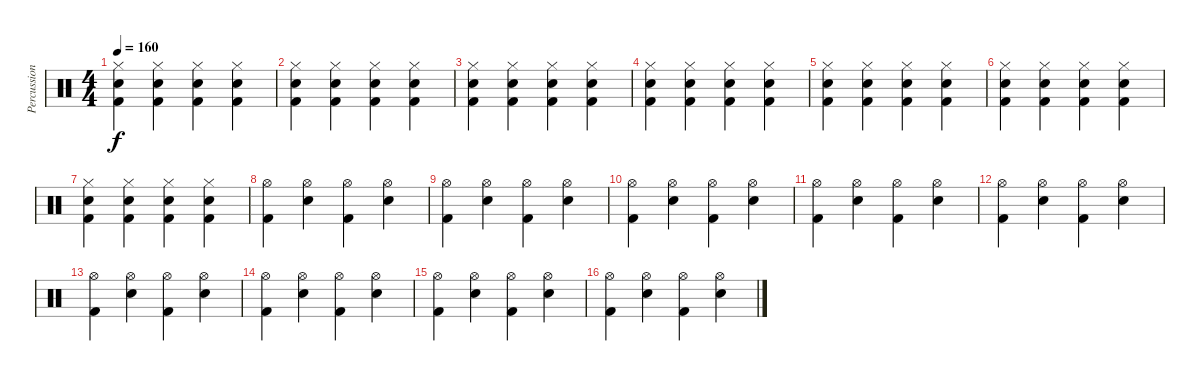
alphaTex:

\track ("Percussion" "Percussion") {instrument percussion}
\staff {score}
\articulation defaults
\ts (4 4)
\tempo 160
\clef neutral
\ks c
("Hi-Hat (closed)" "Snare (hit) 2" "Kick (hit) 2").4{dy f} ("Hi-Hat (closed)" "Snare (hit) 2" "Kick (hit) 2").4 ("Hi-Hat (closed)" "Snare (hit) 2" "Kick (hit) 2").4 ("Hi-Hat (closed)" "Snare (hit) 2" "Kick (hit) 2").4 |
("Hi-Hat (closed)" "Snare (hit) 2" "Kick (hit) 2").4 ("Hi-Hat (closed)" "Snare (hit) 2" "Kick (hit) 2").4 ("Hi-Hat (closed)" "Snare (hit) 2" "Kick (hit) 2").4 ("Hi-Hat (closed)" "Snare (hit) 2" "Kick (hit) 2").4 |
("Hi-Hat (closed)" "Snare (hit) 2" "Kick (hit) 2").4 ("Hi-Hat (closed)" "Snare (hit) 2" "Kick (hit) 2").4 ("Hi-Hat (closed)" "Snare (hit) 2" "Kick (hit) 2").4 ("Hi-Hat (closed)" "Snare (hit) 2" "Kick (hit) 2").4 |
("Hi-Hat (closed)" "Snare (hit) 2" "Kick (hit) 2").4 ("Hi-Hat (closed)" "Snare (hit) 2" "Kick (hit) 2").4 ("Hi-Hat (closed)" "Snare (hit) 2" "Kick (hit) 2").4 ("Hi-Hat (closed)" "Snare (hit) 2" "Kick (hit) 2").4 |
("Hi-Hat (closed)" "Snare (hit) 2" "Kick (hit) 2").4 ("Hi-Hat (closed)" "Snare (hit) 2" "Kick (hit) 2").4 ("Hi-Hat (closed)" "Snare (hit) 2" "Kick (hit) 2").4 ("Hi-Hat (closed)" "Snare (hit) 2" "Kick (hit) 2").4 |
("Hi-Hat (closed)" "Snare (hit) 2" "Kick (hit) 2").4 ("Hi-Hat (closed)" "Snare (hit) 2" "Kick (hit) 2").4 ("Hi-Hat (closed)" "Snare (hit) 2" "Kick (hit) 2").4 ("Hi-Hat (closed)" "Snare (hit) 2" "Kick (hit) 2").4 |
("Hi-Hat (closed)" "Snare (hit) 2" "Kick (hit) 2").4 ("Hi-Hat (closed)" "Snare (hit) 2" "Kick (hit) 2").4 ("Hi-Hat (closed)" "Snare (hit) 2" "Kick (hit) 2").4 ("Hi-Hat (closed)" "Snare (hit) 2" "Kick (hit) 2").4 |
("Hi-Hat (open)" "Kick (hit) 2").4 ("Hi-Hat (open)" "Snare (hit) 2").4 ("Hi-Hat (open)" "Kick (hit) 2").4 ("Hi-Hat (open)" "Snare (hit) 2").4 |
("Hi-Hat (open)" "Kick (hit) 2").4 ("Hi-Hat (open)" "Snare (hit) 2").4 ("Hi-Hat (open)" "Kick (hit) 2").4 ("Hi-Hat (open)" "Snare (hit) 2").4 |
("Hi-Hat (open)" "Kick (hit) 2").4 ("Hi-Hat (open)" "Snare (hit) 2").4 ("Hi-Hat (open)" "Kick (hit) 2").4 ("Hi-Hat (open)" "Snare (hit) 2").4 |
("Hi-Hat (open)" "Kick (hit) 2").4 ("Hi-Hat (open)" "Snare (hit) 2").4 ("Hi-Hat (open)" "Kick (hit) 2").4 ("Hi-Hat (open)" "Snare (hit) 2").4 |
("Hi-Hat (open)" "Kick (hit) 2").4 ("Hi-Hat (open)" "Snare (hit) 2").4 ("Hi-Hat (open)" "Kick (hit) 2").4 ("Hi-Hat (open)" "Snare (hit) 2").4 |
("Hi-Hat (open)" "Kick (hit) 2").4 ("Hi-Hat (open)" "Snare (hit) 2").4 ("Hi-Hat (open)" "Kick (hit) 2").4 ("Hi-Hat (open)" "Snare (hit) 2").4 |
("Hi-Hat (open)" "Kick (hit) 2").4 ("Hi-Hat (open)" "Snare (hit) 2").4 ("Hi-Hat (open)" "Kick (hit) 2").4 ("Hi-Hat (open)" "Snare (hit) 2").4 |
("Hi-Hat (open)" "Kick (hit) 2").4 ("Hi-Hat (open)" "Snare (hit) 2").4 ("Hi-Hat (open)" "Kick (hit) 2").4 ("Hi-Hat (open)" "Snare (hit) 2").4 |
("Hi-Hat (open)" "Kick (hit) 2").4 ("Hi-Hat (open)" "Snare (hit) 2").4 ("Hi-Hat (open)" "Kick (hit) 2").4 ("Hi-Hat (open)" "Snare (hit) 2").4
